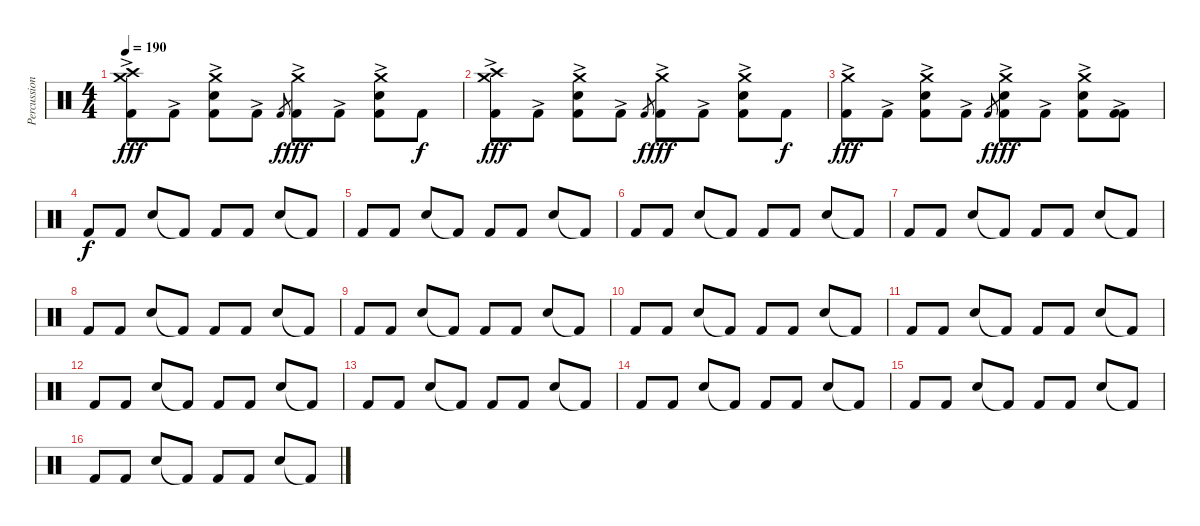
\track ("Percussions" "Percussion") {instrument percussion}
\staff {score}
\articulation defaults
\ts (4 4)
\tempo 190
\clef neutral
\ks c
("Crash high (hit)" "Crash medium (hit)" "Kick (hit) 2"{ac}).8{dy fff} "Kick (hit) 2"{ac}.8 ("Crash medium (hit)" "Electric Snare (hit)" "Kick (hit) 2"{ac}).8 "Kick (hit) 2"{ac}.8 "Kick (hit) 2".8{gr dy f} ("Crash medium (hit)" "Kick (hit) 2"{ac}).8{dy fff} "Kick (hit) 2"{ac}.8 ("Crash medium (hit)" "Electric Snare (hit)" "Kick (hit) 2"{ac}).8 "Kick (hit) 2".8{dy f} |
("Crash high (hit)" "Crash medium (hit)" "Kick (hit) 2"{ac}).8{dy fff} "Kick (hit) 2"{ac}.8 ("Crash medium (hit)" "Electric Snare (hit)" "Kick (hit) 2"{ac}).8 "Kick (hit) 2"{ac}.8 "Kick (hit) 2".8{gr dy f} ("Crash medium (hit)" "Kick (hit) 2"{ac}).8{dy fff} "Kick (hit) 2"{ac}.8 ("Crash medium (hit)" "Electric Snare (hit)" "Kick (hit) 2"{ac}).8 "Kick (hit) 2".8{dy f} |
("Crash medium (hit)" "Kick (hit) 2"{ac}).8{dy fff} "Kick (hit) 2"{ac}.8 ("Crash medium (hit)" "Electric Snare (hit)" "Kick (hit) 2"{ac}).8 "Kick (hit) 2"{ac}.8 "Kick (hit) 2".8{gr dy f} ("Crash medium (hit)" "Electric Snare (hit)" "Kick (hit) 2"{ac}).8{dy fff} "Kick (hit) 2"{ac}.8 ("Crash medium (hit)" "Electric Snare (hit)" "Kick (hit) 2"{ac}).8 ("Kick (hit) 2" "Kick (hit) 2"{ac}).8 |
"Kick (hit) 2".8{dy f} "Kick (hit) 2".8 "Snare (hit) 2".8 "Kick (hit) 2"{t}.8 "Kick (hit) 2".8 "Kick (hit) 2".8 "Snare (hit) 2".8 "Kick (hit) 2"{t}.8 |
"Kick (hit) 2".8 "Kick (hit) 2".8 "Snare (hit) 2".8 "Kick (hit) 2"{t}.8 "Kick (hit) 2".8 "Kick (hit) 2".8 "Snare (hit) 2".8 "Kick (hit) 2"{t}.8 |
"Kick (hit) 2".8 "Kick (hit) 2".8 "Snare (hit) 2".8 "Kick (hit) 2"{t}.8 "Kick (hit) 2".8 "Kick (hit) 2".8 "Snare (hit) 2".8 "Kick (hit) 2"{t}.8 |
"Kick (hit) 2".8 "Kick (hit) 2".8 "Snare (hit) 2".8 "Kick (hit) 2"{t}.8 "Kick (hit) 2".8 "Kick (hit) 2".8 "Snare (hit) 2".8 "Kick (hit) 2"{t}.8 |
"Kick (hit) 2".8 "Kick (hit) 2".8 "Snare (hit) 2".8 "Kick (hit) 2"{t}.8 "Kick (hit) 2".8 "Kick (hit) 2".8 "Snare (hit) 2".8 "Kick (hit) 2"{t}.8 |
"Kick (hit) 2".8 "Kick (hit) 2".8 "Snare (hit) 2".8 "Kick (hit) 2"{t}.8 "Kick (hit) 2".8 "Kick (hit) 2".8 "Snare (hit) 2".8 "Kick (hit) 2"{t}.8 |
"Kick (hit) 2".8 "Kick (hit) 2".8 "Snare (hit) 2".8 "Kick (hit) 2"{t}.8 "Kick (hit) 2".8 "Kick (hit) 2".8 "Snare (hit) 2".8 "Kick (hit) 2"{t}.8 |
"Kick (hit) 2".8 "Kick (hit) 2".8 "Snare (hit) 2".8 "Kick (hit) 2"{t}.8 "Kick (hit) 2".8 "Kick (hit) 2".8 "Snare (hit) 2".8 "Kick (hit) 2"{t}.8 |
"Kick (hit) 2".8 "Kick (hit) 2".8 "Snare (hit) 2".8 "Kick (hit) 2"{t}.8 "Kick (hit) 2".8 "Kick (hit) 2".8 "Snare (hit) 2".8 "Kick (hit) 2"{t}.8 |
"Kick (hit) 2".8 "Kick (hit) 2".8 "Snare (hit) 2".8 "Kick (hit) 2"{t}.8 "Kick (hit) 2".8 "Kick (hit) 2".8 "Snare (hit) 2".8 "Kick (hit) 2"{t}.8 |
"Kick (hit) 2".8 "Kick (hit) 2".8 "Snare (hit) 2".8 "Kick (hit) 2"{t}.8 "Kick (hit) 2".8 "Kick (hit) 2".8 "Snare (hit) 2".8 "Kick (hit) 2"{t}.8 |
"Kick (hit) 2".8 "Kick (hit) 2".8 "Snare (hit) 2".8 "Kick (hit) 2"{t}.8 "Kick (hit) 2".8 "Kick (hit) 2".8 "Snare (hit) 2".8 "Kick (hit) 2"{t}.8 |
"Kick (hit) 2".8 "Kick (hit) 2".8 "Snare (hit) 2".8 "Kick (hit) 2"{t}.8 "Kick (hit) 2".8 "Kick (hit) 2".8 "Snare (hit) 2".8 "Kick (hit) 2"{t}.8
